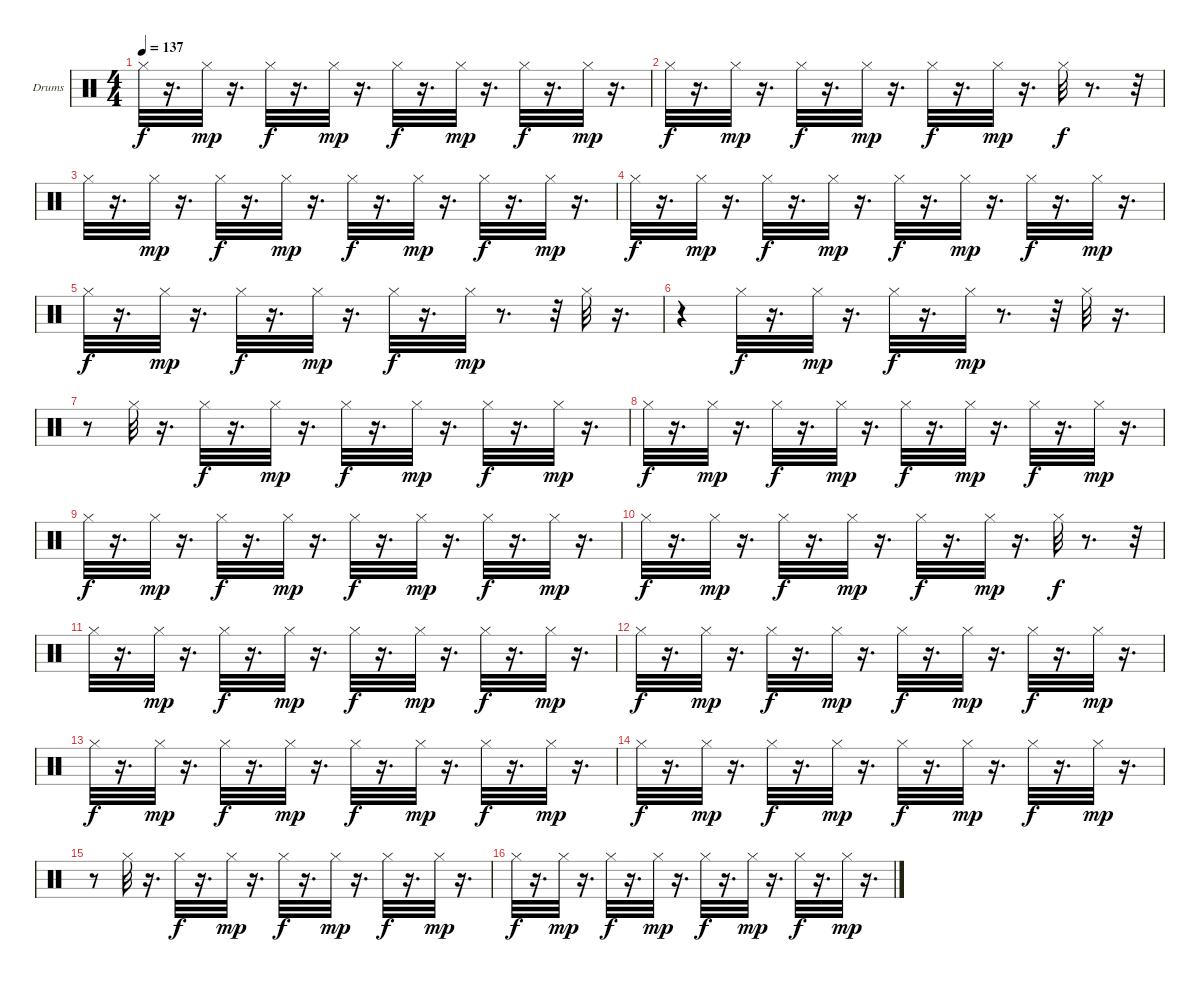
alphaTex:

\bracketExtendMode groupsimilarinstruments
\firstSystemTrackNameOrientation horizontal
\otherSystemsTrackNameOrientation horizontal
\track ("Drumkit" "Drums") {instrument percussion}
\staff {score}
\articulation defaults
\ts (4 4)
\tempo 137
\clef neutral
\ks c "Hi-Hat (closed)".32{dy f}
r.16{d} "Hi-Hat (closed)".32{dy mp} r.16{d} "Hi-Hat (closed)".32{dy f} r.16{d} "Hi-Hat (closed)".32{dy mp} r.16{d} "Hi-Hat (closed)".32{dy f} r.16{d} "Hi-Hat (closed)".32{dy mp} r.16{d} "Hi-Hat (closed)".32{dy f} r.16{d} "Hi-Hat (closed)".32{dy mp} r.16{d} |
"Hi-Hat (closed)".32{dy f} r.16{d} "Hi-Hat (closed)".32{dy mp} r.16{d} "Hi-Hat (closed)".32{dy f} r.16{d} "Hi-Hat (closed)".32{dy mp} r.16{d} "Hi-Hat (closed)".32{dy f} r.16{d} "Hi-Hat (closed)".32{dy mp} r.16{d} "Hi-Hat (closed)".32{dy f} r.8{d} r.32 |
"Hi-Hat (closed)".32 r.16{d} "Hi-Hat (closed)".32{dy mp} r.16{d} "Hi-Hat (closed)".32{dy f} r.16{d} "Hi-Hat (closed)".32{dy mp} r.16{d} "Hi-Hat (closed)".32{dy f} r.16{d} "Hi-Hat (closed)".32{dy mp} r.16{d} "Hi-Hat (closed)".32{dy f} r.16{d} "Hi-Hat (closed)".32{dy mp} r.16{d} |
"Hi-Hat (closed)".32{dy f} r.16{d} "Hi-Hat (closed)".32{dy mp} r.16{d} "Hi-Hat (closed)".32{dy f} r.16{d} "Hi-Hat (closed)".32{dy mp} r.16{d} "Hi-Hat (closed)".32{dy f} r.16{d} "Hi-Hat (closed)".32{dy mp} r.16{d} "Hi-Hat (closed)".32{dy f} r.16{d} "Hi-Hat (closed)".32{dy mp} r.16{d} |
"Hi-Hat (closed)".32{dy f} r.16{d} "Hi-Hat (closed)".32{dy mp} r.16{d} "Hi-Hat (closed)".32{dy f} r.16{d} "Hi-Hat (closed)".32{dy mp} r.16{d} "Hi-Hat (closed)".32{dy f} r.16{d} "Hi-Hat (closed)".32{dy mp} r.8{d} r.32 "Hi-Hat (closed)".32 r.16{d} |
r.4 "Hi-Hat (closed)".32{dy f} r.16{d} "Hi-Hat (closed)".32{dy mp} r.16{d} "Hi-Hat (closed)".32{dy f} r.16{d} "Hi-Hat (closed)".32{dy mp} r.8{d} r.32 "Hi-Hat (closed)".32 r.16{d} |
r.8 "Hi-Hat (closed)".32 r.16{d} "Hi-Hat (closed)".32{dy f} r.16{d} "Hi-Hat (closed)".32{dy mp} r.16{d} "Hi-Hat (closed)".32{dy f} r.16{d} "Hi-Hat (closed)".32{dy mp} r.16{d} "Hi-Hat (closed)".32{dy f} r.16{d} "Hi-Hat (closed)".32{dy mp} r.16{d} |
"Hi-Hat (closed)".32{dy f} r.16{d} "Hi-Hat (closed)".32{dy mp} r.16{d} "Hi-Hat (closed)".32{dy f} r.16{d} "Hi-Hat (closed)".32{dy mp} r.16{d} "Hi-Hat (closed)".32{dy f} r.16{d} "Hi-Hat (closed)".32{dy mp} r.16{d} "Hi-Hat (closed)".32{dy f} r.16{d} "Hi-Hat (closed)".32{dy mp} r.16{d} |
"Hi-Hat (closed)".32{dy f} r.16{d} "Hi-Hat (closed)".32{dy mp} r.16{d} "Hi-Hat (closed)".32{dy f} r.16{d} "Hi-Hat (closed)".32{dy mp} r.16{d} "Hi-Hat (closed)".32{dy f} r.16{d} "Hi-Hat (closed)".32{dy mp} r.16{d} "Hi-Hat (closed)".32{dy f} r.16{d} "Hi-Hat (closed)".32{dy mp} r.16{d} |
"Hi-Hat (closed)".32{dy f} r.16{d} "Hi-Hat (closed)".32{dy mp} r.16{d} "Hi-Hat (closed)".32{dy f} r.16{d} "Hi-Hat (closed)".32{dy mp} r.16{d} "Hi-Hat (closed)".32{dy f} r.16{d} "Hi-Hat (closed)".32{dy mp} r.16{d} "Hi-Hat (closed)".32{dy f} r.8{d} r.32 |
"Hi-Hat (closed)".32 r.16{d} "Hi-Hat (closed)".32{dy mp} r.16{d} "Hi-Hat (closed)".32{dy f} r.16{d} "Hi-Hat (closed)".32{dy mp} r.16{d} "Hi-Hat (closed)".32{dy f} r.16{d} "Hi-Hat (closed)".32{dy mp} r.16{d} "Hi-Hat (closed)".32{dy f} r.16{d} "Hi-Hat (closed)".32{dy mp} r.16{d} |
"Hi-Hat (closed)".32{dy f} r.16{d} "Hi-Hat (closed)".32{dy mp} r.16{d} "Hi-Hat (closed)".32{dy f} r.16{d} "Hi-Hat (closed)".32{dy mp} r.16{d} "Hi-Hat (closed)".32{dy f} r.16{d} "Hi-Hat (closed)".32{dy mp} r.16{d} "Hi-Hat (closed)".32{dy f} r.16{d} "Hi-Hat (closed)".32{dy mp} r.16{d} |
"Hi-Hat (closed)".32{dy f} r.16{d} "Hi-Hat (closed)".32{dy mp} r.16{d} "Hi-Hat (closed)".32{dy f} r.16{d} "Hi-Hat (closed)".32{dy mp} r.16{d} "Hi-Hat (closed)".32{dy f} r.16{d} "Hi-Hat (closed)".32{dy mp} r.16{d} "Hi-Hat (closed)".32{dy f} r.16{d} "Hi-Hat (closed)".32{dy mp} r.16{d} |
"Hi-Hat (closed)".32{dy f} r.16{d} "Hi-Hat (closed)".32{dy mp} r.16{d} "Hi-Hat (closed)".32{dy f} r.16{d} "Hi-Hat (closed)".32{dy mp} r.16{d} "Hi-Hat (closed)".32{dy f} r.16{d} "Hi-Hat (closed)".32{dy mp} r.16{d} "Hi-Hat (closed)".32{dy f} r.16{d} "Hi-Hat (closed)".32{dy mp} r.16{d} |
r.8 "Hi-Hat (closed)".32 r.16{d} "Hi-Hat (closed)".32{dy f} r.16{d} "Hi-Hat (closed)".32{dy mp} r.16{d} "Hi-Hat (closed)".32{dy f} r.16{d} "Hi-Hat (closed)".32{dy mp} r.16{d} "Hi-Hat (closed)".32{dy f} r.16{d} "Hi-Hat (closed)".32{dy mp} r.16{d} |
"Hi-Hat (closed)".32{dy f} r.16{d} "Hi-Hat (closed)".32{dy mp} r.16{d} "Hi-Hat (closed)".32{dy f} r.16{d} "Hi-Hat (closed)".32{dy mp} r.16{d} "Hi-Hat (closed)".32{dy f} r.16{d} "Hi-Hat (closed)".32{dy mp} r.16{d} "Hi-Hat (closed)".32{dy f} r.16{d} "Hi-Hat (closed)".32{dy mp} r.16{d}
